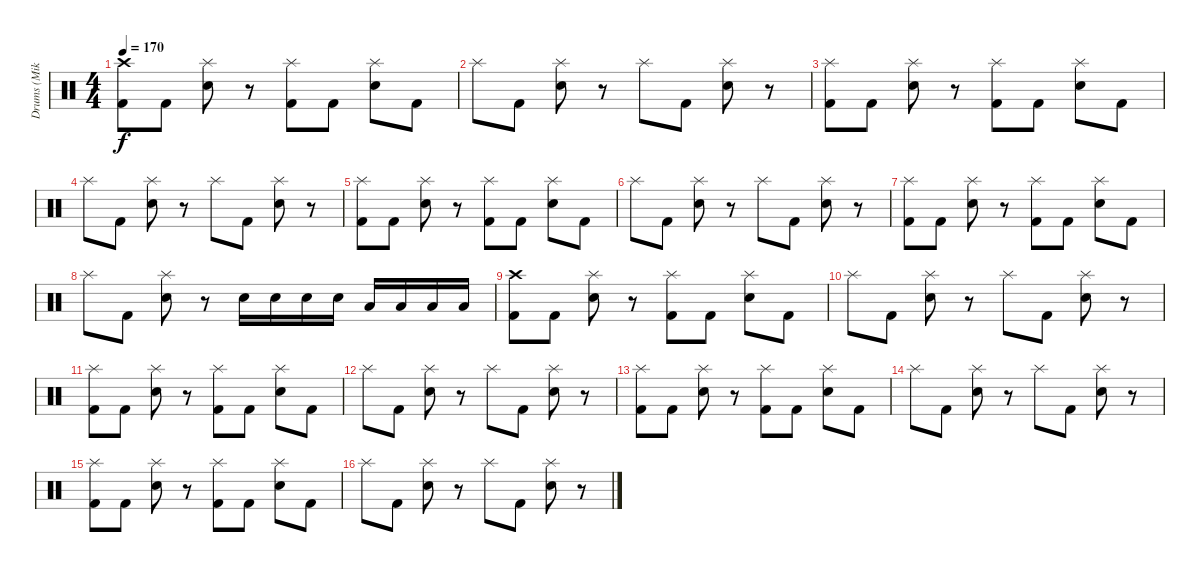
\track ("Drums (Mike C)" "Drums (Mik") {instrument percussion}
\staff {score}
\articulation defaults
\ts (4 4)
\tempo 170
\clef neutral
\ks c
("Crash high (hit)" "Kick (hit) 2").8{dy f} "Kick (hit) 2".8 ("Splash (hit)" "Snare (hit) 2").8 r.8 ("Splash (hit)" "Kick (hit) 2").8 "Kick (hit) 2".8 ("Splash (hit)" "Snare (hit) 2").8 "Kick (hit) 2".8 |
"Splash (hit)".8 "Kick (hit) 2".8 ("Splash (hit)" "Snare (hit) 2").8 r.8 "Splash (hit)".8 "Kick (hit) 2".8 ("Splash (hit)" "Snare (hit) 2").8 r.8 |
("Splash (hit)" "Kick (hit) 2").8 "Kick (hit) 2".8 ("Splash (hit)" "Snare (hit) 2").8 r.8 ("Splash (hit)" "Kick (hit) 2").8 "Kick (hit) 2".8 ("Splash (hit)" "Snare (hit) 2").8 "Kick (hit) 2".8 |
"Splash (hit)".8 "Kick (hit) 2".8 ("Splash (hit)" "Snare (hit) 2").8 r.8 "Splash (hit)".8 "Kick (hit) 2".8 ("Splash (hit)" "Snare (hit) 2").8 r.8 |
("Splash (hit)" "Kick (hit) 2").8 "Kick (hit) 2".8 ("Splash (hit)" "Snare (hit) 2").8 r.8 ("Splash (hit)" "Kick (hit) 2").8 "Kick (hit) 2".8 ("Splash (hit)" "Snare (hit) 2").8 "Kick (hit) 2".8 |
"Splash (hit)".8 "Kick (hit) 2".8 ("Splash (hit)" "Snare (hit) 2").8 r.8 "Splash (hit)".8 "Kick (hit) 2".8 ("Splash (hit)" "Snare (hit) 2").8 r.8 |
("Splash (hit)" "Kick (hit) 2").8 "Kick (hit) 2".8 ("Splash (hit)" "Snare (hit) 2").8 r.8 ("Splash (hit)" "Kick (hit) 2").8 "Kick (hit) 2".8 ("Splash (hit)" "Snare (hit) 2").8 "Kick (hit) 2".8 |
"Splash (hit)".8 "Kick (hit) 2".8 ("Splash (hit)" "Snare (hit) 2").8 r.8 "Snare (hit) 2".16 "Snare (hit) 2".16 "Snare (hit) 2".16 "Snare (hit) 2".16 "Low Tom (hit)".16 "Low Tom (hit)".16 "Low Tom (hit)".16 "Low Tom (hit)".16 |
("Crash high (hit)" "Kick (hit) 2").8 "Kick (hit) 2".8 ("Splash (hit)" "Snare (hit) 2").8 r.8 ("Splash (hit)" "Kick (hit) 2").8 "Kick (hit) 2".8 ("Splash (hit)" "Snare (hit) 2").8 "Kick (hit) 2".8 |
"Splash (hit)".8 "Kick (hit) 2".8 ("Splash (hit)" "Snare (hit) 2").8 r.8 "Splash (hit)".8 "Kick (hit) 2".8 ("Splash (hit)" "Snare (hit) 2").8 r.8 |
("Splash (hit)" "Kick (hit) 2").8 "Kick (hit) 2".8 ("Splash (hit)" "Snare (hit) 2").8 r.8 ("Splash (hit)" "Kick (hit) 2").8 "Kick (hit) 2".8 ("Splash (hit)" "Snare (hit) 2").8 "Kick (hit) 2".8 |
"Splash (hit)".8 "Kick (hit) 2".8 ("Splash (hit)" "Snare (hit) 2").8 r.8 "Splash (hit)".8 "Kick (hit) 2".8 ("Splash (hit)" "Snare (hit) 2").8 r.8 |
("Splash (hit)" "Kick (hit) 2").8 "Kick (hit) 2".8 ("Splash (hit)" "Snare (hit) 2").8 r.8 ("Splash (hit)" "Kick (hit) 2").8 "Kick (hit) 2".8 ("Splash (hit)" "Snare (hit) 2").8 "Kick (hit) 2".8 |
"Splash (hit)".8 "Kick (hit) 2".8 ("Splash (hit)" "Snare (hit) 2").8 r.8 "Splash (hit)".8 "Kick (hit) 2".8 ("Splash (hit)" "Snare (hit) 2").8 r.8 |
("Splash (hit)" "Kick (hit) 2").8 "Kick (hit) 2".8 ("Splash (hit)" "Snare (hit) 2").8 r.8 ("Splash (hit)" "Kick (hit) 2").8 "Kick (hit) 2".8 ("Splash (hit)" "Snare (hit) 2").8 "Kick (hit) 2".8 |
"Splash (hit)".8 "Kick (hit) 2".8 ("Splash (hit)" "Snare (hit) 2").8 r.8 "Splash (hit)".8 "Kick (hit) 2".8 ("Splash (hit)" "Snare (hit) 2").8 r.8
